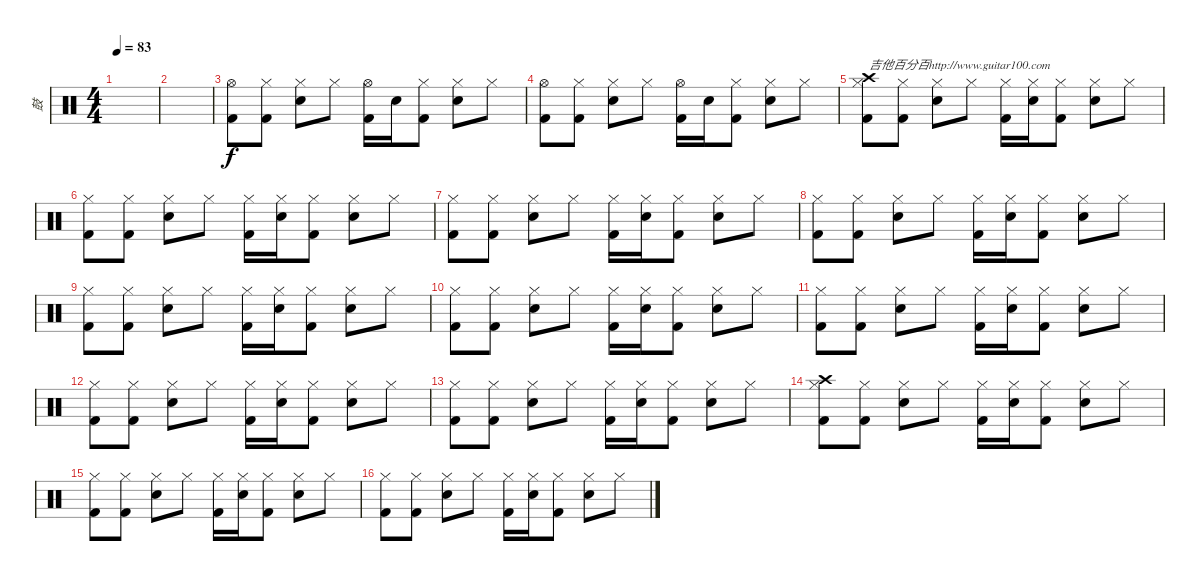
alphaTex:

\track ("鼓" "鼓") {instrument percussion}
\staff {score}
\articulation defaults
\ts (4 4)
\tempo 83
\clef neutral
\ks c
|
|
("Hi-Hat (open)" "Kick (hit) 2").8 ("Hi-Hat (closed)" "Kick (hit) 2").8 ("Hi-Hat (closed)" "Electric Snare (hit)").8 "Hi-Hat (closed)".8 ("Hi-Hat (open)" "Kick (hit) 2").16 "Electric Snare (hit)".16 ("Hi-Hat (closed)" "Kick (hit) 2").8 ("Hi-Hat (closed)" "Electric Snare (hit)").8 "Hi-Hat (closed)".8 |
("Hi-Hat (open)" "Kick (hit) 2").8 ("Hi-Hat (closed)" "Kick (hit) 2").8 ("Hi-Hat (closed)" "Electric Snare (hit)").8 "Hi-Hat (closed)".8 ("Hi-Hat (open)" "Kick (hit) 2").16 "Electric Snare (hit)".16 ("Hi-Hat (closed)" "Kick (hit) 2").8 ("Hi-Hat (closed)" "Electric Snare (hit)").8 "Hi-Hat (closed)".8 |
("Crash high (hit)" "Hi-Hat (closed)" "Kick (hit) 2").8{txt "吉他百分百http://www.guitar100.com"} ("Hi-Hat (closed)" "Kick (hit) 2").8 ("Hi-Hat (closed)" "Electric Snare (hit)").8 "Hi-Hat (closed)".8 ("Hi-Hat (closed)" "Kick (hit) 2").16 ("Hi-Hat (closed)" "Electric Snare (hit)").16 ("Hi-Hat (closed)" "Kick (hit) 2").8 ("Hi-Hat (closed)" "Electric Snare (hit)").8 "Hi-Hat (closed)".8 |
("Hi-Hat (closed)" "Kick (hit) 2").8 ("Hi-Hat (closed)" "Kick (hit) 2").8 ("Hi-Hat (closed)" "Electric Snare (hit)").8 "Hi-Hat (closed)".8 ("Hi-Hat (closed)" "Kick (hit) 2").16 ("Hi-Hat (closed)" "Electric Snare (hit)").16 ("Hi-Hat (closed)" "Kick (hit) 2").8 ("Hi-Hat (closed)" "Electric Snare (hit)").8 "Hi-Hat (closed)".8 |
("Hi-Hat (closed)" "Kick (hit) 2").8 ("Hi-Hat (closed)" "Kick (hit) 2").8 ("Hi-Hat (closed)" "Electric Snare (hit)").8 "Hi-Hat (closed)".8 ("Hi-Hat (closed)" "Kick (hit) 2").16 ("Hi-Hat (closed)" "Electric Snare (hit)").16 ("Hi-Hat (closed)" "Kick (hit) 2").8 ("Hi-Hat (closed)" "Electric Snare (hit)").8 "Hi-Hat (closed)".8 |
("Hi-Hat (closed)" "Kick (hit) 2").8 ("Hi-Hat (closed)" "Kick (hit) 2").8 ("Hi-Hat (closed)" "Electric Snare (hit)").8 "Hi-Hat (closed)".8 ("Hi-Hat (closed)" "Kick (hit) 2").16 ("Hi-Hat (closed)" "Electric Snare (hit)").16 ("Hi-Hat (closed)" "Kick (hit) 2").8 ("Hi-Hat (closed)" "Electric Snare (hit)").8 "Hi-Hat (closed)".8 |
("Hi-Hat (closed)" "Kick (hit) 2").8 ("Hi-Hat (closed)" "Kick (hit) 2").8 ("Hi-Hat (closed)" "Electric Snare (hit)").8 "Hi-Hat (closed)".8 ("Hi-Hat (closed)" "Kick (hit) 2").16 ("Hi-Hat (closed)" "Electric Snare (hit)").16 ("Hi-Hat (closed)" "Kick (hit) 2").8 ("Hi-Hat (closed)" "Electric Snare (hit)").8 "Hi-Hat (closed)".8 |
("Hi-Hat (closed)" "Kick (hit) 2").8 ("Hi-Hat (closed)" "Kick (hit) 2").8 ("Hi-Hat (closed)" "Electric Snare (hit)").8 "Hi-Hat (closed)".8 ("Hi-Hat (closed)" "Kick (hit) 2").16 ("Hi-Hat (closed)" "Electric Snare (hit)").16 ("Hi-Hat (closed)" "Kick (hit) 2").8 ("Hi-Hat (closed)" "Electric Snare (hit)").8 "Hi-Hat (closed)".8 |
("Hi-Hat (closed)" "Kick (hit) 2").8 ("Hi-Hat (closed)" "Kick (hit) 2").8 ("Hi-Hat (closed)" "Electric Snare (hit)").8 "Hi-Hat (closed)".8 ("Hi-Hat (closed)" "Kick (hit) 2").16 ("Hi-Hat (closed)" "Electric Snare (hit)").16 ("Hi-Hat (closed)" "Kick (hit) 2").8 ("Hi-Hat (closed)" "Electric Snare (hit)").8 "Hi-Hat (closed)".8 |
("Hi-Hat (closed)" "Kick (hit) 2").8 ("Hi-Hat (closed)" "Kick (hit) 2").8 ("Hi-Hat (closed)" "Electric Snare (hit)").8 "Hi-Hat (closed)".8 ("Hi-Hat (closed)" "Kick (hit) 2").16 ("Hi-Hat (closed)" "Electric Snare (hit)").16 ("Hi-Hat (closed)" "Kick (hit) 2").8 ("Hi-Hat (closed)" "Electric Snare (hit)").8 "Hi-Hat (closed)".8 |
("Hi-Hat (closed)" "Kick (hit) 2").8 ("Hi-Hat (closed)" "Kick (hit) 2").8 ("Hi-Hat (closed)" "Electric Snare (hit)").8 "Hi-Hat (closed)".8 ("Hi-Hat (closed)" "Kick (hit) 2").16 ("Hi-Hat (closed)" "Electric Snare (hit)").16 ("Hi-Hat (closed)" "Kick (hit) 2").8 ("Hi-Hat (closed)" "Electric Snare (hit)").8 "Hi-Hat (closed)".8 |
("Crash high (hit)" "Hi-Hat (closed)" "Kick (hit) 2").8 ("Hi-Hat (closed)" "Kick (hit) 2").8 ("Hi-Hat (closed)" "Electric Snare (hit)").8 "Hi-Hat (closed)".8 ("Hi-Hat (closed)" "Kick (hit) 2").16 ("Hi-Hat (closed)" "Electric Snare (hit)").16 ("Hi-Hat (closed)" "Kick (hit) 2").8 ("Hi-Hat (closed)" "Electric Snare (hit)").8 "Hi-Hat (closed)".8 |
("Hi-Hat (closed)" "Kick (hit) 2").8 ("Hi-Hat (closed)" "Kick (hit) 2").8 ("Hi-Hat (closed)" "Electric Snare (hit)").8 "Hi-Hat (closed)".8 ("Hi-Hat (closed)" "Kick (hit) 2").16 ("Hi-Hat (closed)" "Electric Snare (hit)").16 ("Hi-Hat (closed)" "Kick (hit) 2").8 ("Hi-Hat (closed)" "Electric Snare (hit)").8 "Hi-Hat (closed)".8 |
("Hi-Hat (closed)" "Kick (hit) 2").8 ("Hi-Hat (closed)" "Kick (hit) 2").8 ("Hi-Hat (closed)" "Electric Snare (hit)").8 "Hi-Hat (closed)".8 ("Hi-Hat (closed)" "Kick (hit) 2").16 ("Hi-Hat (closed)" "Electric Snare (hit)").16 ("Hi-Hat (closed)" "Kick (hit) 2").8 ("Hi-Hat (closed)" "Electric Snare (hit)").8 "Hi-Hat (closed)".8
